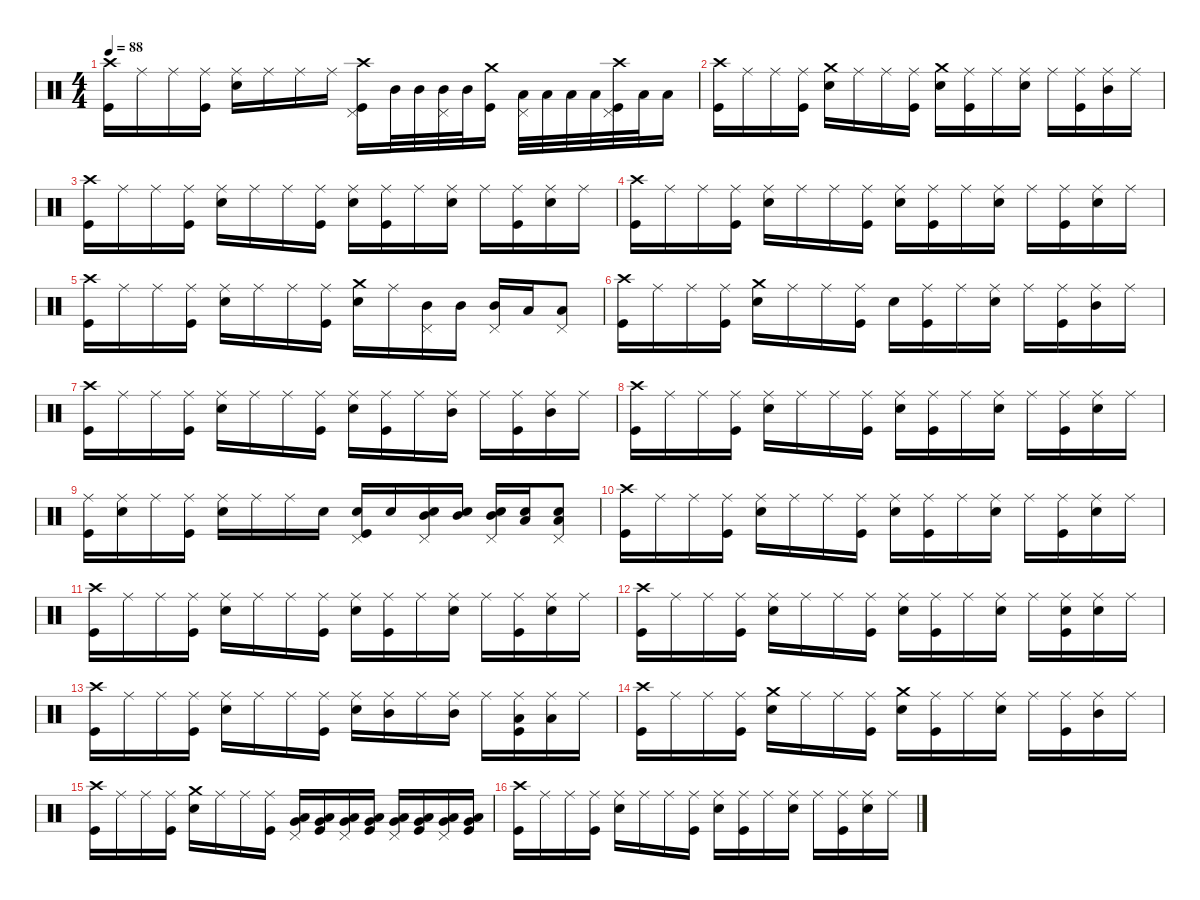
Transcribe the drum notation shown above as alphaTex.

\defaultSystemsLayout 4
\hideDynamics
\bracketExtendMode nobrackets
\singleTrackTrackNamePolicy hidden
\multiTrackTrackNamePolicy hidden
\firstSystemTrackNameMode fullname
\firstSystemTrackNameOrientation horizontal
\otherSystemsTrackNameOrientation horizontal
\track ("Drums" "drm.") {instrument percussion}
\staff {score}
\articulation defaults
\ts (4 4)
\tempo 88
\clef neutral
\ks c
("Crash high (hit)" "Kick (hit)").16{dy f beam Down} "Ride (middle)".16{dy mp beam Down} "Ride (middle)".16{dy f beam Down} ("Ride (middle)" "Kick (hit)").16{dy mp beam Down} ("Ride (middle)" "Snare (hit) 2").16{dy f beam Down} "Ride (middle)".16{dy mp beam Down} "Ride (middle)".16{dy f beam Down} "Ride (middle)".16{dy mp beam Down} ("Crash high (hit)" "Pedal Hi-Hat (hit)" "Kick (hit)").16{dy f beam Down} "Mid Tom (hit)".32{dy mf beam Down} "Mid Tom (hit)".32{dy mp beam Down} ("Pedal Hi-Hat (hit)" "Mid Tom (hit)").32{dy p beam Down} "Mid Tom (hit)".32{dy mf beam Down} ("Crash medium (hit)" "Kick (hit)").16{dy f beam Down} ("Pedal Hi-Hat (hit)" "Low Tom (hit)").32{dy p beam Down} "Low Tom (hit)".32{dy mp beam Down} "Low Tom (hit)".32{beam Down} "Low Tom (hit)".32{beam Down} ("Crash high (hit)" "Pedal Hi-Hat (hit)" "Kick (hit)").32{dy f beam Down} "Low Tom (hit)".32{dy mp beam Down} "Low Tom (hit)".16{dy p beam Down} |
("Crash high (hit)" "Kick (hit)").16{dy f beam Down} "Ride (middle)".16{dy mp beam Down} "Ride (middle)".16{dy f beam Down} ("Ride (middle)" "Kick (hit)").16{dy mp beam Down} ("Crash medium (hit)" "Snare (hit) 2").16{dy f beam Down} "Ride (middle)".16{dy mp beam Down} "Ride (middle)".16{dy f beam Down} ("Ride (middle)" "Kick (hit)").16{dy mp beam Down} ("Crash medium (hit)" "Snare (hit) 2").16{dy f beam Down} ("Ride (middle)" "Kick (hit)").16{dy mp beam Down} "Ride (middle)".16{dy f beam Down} ("Ride (middle)" "Snare (hit) 2").16{dy mp beam Down} "Ride (middle)".16{dy f beam Down} ("Ride (middle)" "Kick (hit)").16{dy mp beam Down} ("Ride (middle)" "Mid Tom (hit)").16{dy f beam Down} "Ride (middle)".16{dy mp beam Down} |
("Crash high (hit)" "Kick (hit)").16{dy f beam Down} "Ride (middle)".16{dy mp beam Down} "Ride (middle)".16{dy f beam Down} ("Ride (middle)" "Kick (hit)").16{dy mp beam Down} ("Ride (middle)" "Snare (hit) 2").16{dy f beam Down} "Ride (middle)".16{dy mp beam Down} "Ride (middle)".16{dy f beam Down} ("Ride (middle)" "Kick (hit)").16{dy mp beam Down} ("Ride (middle)" "Snare (hit) 2").16{dy f beam Down} ("Ride (middle)" "Kick (hit)").16{dy mp beam Down} "Ride (middle)".16{dy f beam Down} ("Ride (middle)" "Snare (hit) 2").16{dy mp beam Down} "Ride (middle)".16{dy f beam Down} ("Ride (middle)" "Kick (hit)").16{dy mp beam Down} ("Ride (middle)" "Snare (hit) 2").16{dy f beam Down} "Ride (middle)".16{dy mp beam Down} |
("Crash high (hit)" "Kick (hit)").16{dy f beam Down} "Ride (middle)".16{dy mp beam Down} "Ride (middle)".16{dy f beam Down} ("Ride (middle)" "Kick (hit)").16{dy mp beam Down} ("Ride (middle)" "Snare (hit) 2").16{dy f beam Down} "Ride (middle)".16{dy mp beam Down} "Ride (middle)".16{dy f beam Down} ("Ride (middle)" "Kick (hit)").16{dy mp beam Down} ("Ride (middle)" "Snare (hit) 2").16{dy f beam Down} ("Ride (middle)" "Kick (hit)").16{dy mp beam Down} "Ride (middle)".16{dy f beam Down} ("Ride (middle)" "Snare (hit) 2").16{dy mp beam Down} "Ride (middle)".16{dy f beam Down} ("Ride (middle)" "Kick (hit)").16{dy mp beam Down} ("Ride (middle)" "Snare (hit) 2").16{dy f beam Down} "Ride (middle)".16{dy mp beam Down} |
("Crash high (hit)" "Kick (hit)").16{dy f beam Down} "Ride (middle)".16{dy mp beam Down} "Ride (middle)".16{dy f beam Down} ("Ride (middle)" "Kick (hit)").16{dy mp beam Down} ("Ride (middle)" "Snare (hit) 2").16{dy f beam Down} "Ride (middle)".16{dy mp beam Down} "Ride (middle)".16{dy f beam Down} ("Ride (middle)" "Kick (hit)").16{dy mp beam Down} ("Crash medium (hit)" "Snare (hit) 2").16{dy f beam Down} "Ride (middle)".16{dy mp beam Down} ("Pedal Hi-Hat (hit)" "Mid Tom (hit)").16{dy p beam Down} "Mid Tom (hit)".16{dy mp beam Down} ("Pedal Hi-Hat (hit)" "Mid Tom (hit)").16{dy p beam Up} "Low Tom (hit)".16{dy mf beam Up} ("Pedal Hi-Hat (hit)" "Low Tom (hit)").8{dy p beam Up} |
("Crash high (hit)" "Kick (hit)").16{dy f beam Down} "Ride (middle)".16{dy mp beam Down} "Ride (middle)".16{dy f beam Down} ("Ride (middle)" "Kick (hit)").16{dy mp beam Down} ("Crash medium (hit)" "Snare (hit) 2").16{dy f beam Down} "Ride (middle)".16{dy mp beam Down} "Ride (middle)".16{dy f beam Down} ("Ride (middle)" "Kick (hit)").16{dy mp beam Down} "Snare (hit) 2".16{dy f beam Down} ("Ride (middle)" "Kick (hit)").16{dy mp beam Down} "Ride (middle)".16{dy f beam Down} ("Ride (middle)" "Snare (hit) 2").16{dy mp beam Down} "Ride (middle)".16{dy f beam Down} ("Ride (middle)" "Kick (hit)").16{dy mp beam Down} ("Ride (middle)" "Mid Tom (hit)").16{dy f beam Down} "Ride (middle)".16{dy mp beam Down} |
("Crash high (hit)" "Kick (hit)").16{dy f beam Down} "Ride (middle)".16{dy mp beam Down} "Ride (middle)".16{dy f beam Down} ("Ride (middle)" "Kick (hit)").16{dy mp beam Down} ("Ride (middle)" "Snare (hit) 2").16{dy f beam Down} "Ride (middle)".16{dy mp beam Down} "Ride (middle)".16{dy f beam Down} ("Ride (middle)" "Kick (hit)").16{dy mp beam Down} ("Ride (middle)" "Snare (hit) 2").16{dy f beam Down} ("Ride (middle)" "Kick (hit)").16{dy mp beam Down} "Ride (middle)".16{dy f beam Down} ("Ride (middle)" "Mid Tom (hit)").16{dy mp beam Down} "Ride (middle)".16{dy f beam Down} ("Ride (middle)" "Kick (hit)").16{dy mp beam Down} ("Ride (middle)" "Mid Tom (hit)").16{dy f beam Down} "Ride (middle)".16{dy mp beam Down} |
("Crash high (hit)" "Kick (hit)").16{dy f beam Down} "Ride (middle)".16{dy mp beam Down} "Ride (middle)".16{dy f beam Down} ("Ride (middle)" "Kick (hit)").16{dy mp beam Down} ("Ride (middle)" "Snare (hit) 2").16{dy f beam Down} "Ride (middle)".16{dy mp beam Down} "Ride (middle)".16{dy f beam Down} ("Ride (middle)" "Kick (hit)").16{dy mp beam Down} ("Ride (middle)" "Snare (hit) 2").16{dy f beam Down} ("Ride (middle)" "Kick (hit)").16{dy mp beam Down} "Ride (middle)".16{dy f beam Down} ("Ride (middle)" "Snare (hit) 2").16{dy mp beam Down} "Ride (middle)".16{dy f beam Down} ("Ride (middle)" "Kick (hit)").16{dy mp beam Down} ("Ride (middle)" "Snare (hit) 2").16{dy f beam Down} "Ride (middle)".16{dy mp beam Down} |
("Ride (middle)" "Kick (hit)").16{dy f beam Down} ("Ride (middle)" "Snare (hit) 2").16{dy mp beam Down} "Ride (middle)".16{dy f beam Down} ("Ride (middle)" "Kick (hit)").16{dy mp beam Down} ("Ride (middle)" "Snare (hit) 2").16{dy f beam Down} "Ride (middle)".16{dy mp beam Down} "Ride (middle)".16{dy f beam Down} "Snare (hit) 2".16{dy mp beam Down} ("Pedal Hi-Hat (hit)" "Snare (hit) 2" "Kick (hit)").16{dy p beam Up} "Snare (hit) 2".16{dy mf beam Up} ("Pedal Hi-Hat (hit)" "Mid Tom (hit)" "Snare (hit) 2").16{dy p beam Up} ("Mid Tom (hit)" "Snare (hit) 2").16{dy mp beam Up} ("Pedal Hi-Hat (hit)" "Mid Tom (hit)" "Snare (hit) 2").16{dy p beam Up} ("Low Tom (hit)" "Snare (hit) 2").16{dy mf beam Up} ("Pedal Hi-Hat (hit)" "Low Tom (hit)" "Snare (hit) 2").8{dy p beam Up} |
("Crash high (hit)" "Kick (hit)").16{dy f beam Down} "Ride (middle)".16{dy mp beam Down} "Ride (middle)".16{dy f beam Down} ("Ride (middle)" "Kick (hit)").16{dy mp beam Down} ("Ride (middle)" "Snare (hit) 2").16{dy f beam Down} "Ride (middle)".16{dy mp beam Down} "Ride (middle)".16{dy f beam Down} ("Ride (middle)" "Kick (hit)").16{dy mp beam Down} ("Ride (middle)" "Snare (hit) 2").16{dy f beam Down} ("Ride (middle)" "Kick (hit)").16{dy mp beam Down} "Ride (middle)".16{dy f beam Down} ("Ride (middle)" "Snare (hit) 2").16{dy mp beam Down} "Ride (middle)".16{dy f beam Down} ("Ride (middle)" "Kick (hit)").16{dy mp beam Down} ("Ride (middle)" "Snare (hit) 2").16{dy f beam Down} "Ride (middle)".16{dy mp beam Down} |
("Crash high (hit)" "Kick (hit)").16{dy f beam Down} "Ride (middle)".16{dy mp beam Down} "Ride (middle)".16{dy f beam Down} ("Ride (middle)" "Kick (hit)").16{dy mp beam Down} ("Ride (middle)" "Snare (hit) 2").16{dy f beam Down} "Ride (middle)".16{dy mp beam Down} "Ride (middle)".16{dy f beam Down} ("Ride (middle)" "Kick (hit)").16{dy mp beam Down} ("Ride (middle)" "Snare (hit) 2").16{dy f beam Down} ("Ride (middle)" "Kick (hit)").16{dy mp beam Down} "Ride (middle)".16{dy f beam Down} ("Ride (middle)" "Snare (hit) 2").16{dy mp beam Down} "Ride (middle)".16{dy f beam Down} ("Ride (middle)" "Kick (hit)").16{dy mp beam Down} ("Ride (middle)" "Snare (hit) 2").16{dy f beam Down} "Ride (middle)".16{dy mp beam Down} |
("Crash high (hit)" "Kick (hit)").16{dy f beam Down} "Ride (middle)".16{dy mp beam Down} "Ride (middle)".16{dy f beam Down} ("Ride (middle)" "Kick (hit)").16{dy mp beam Down} ("Ride (middle)" "Snare (hit) 2").16{dy f beam Down} "Ride (middle)".16{dy mp beam Down} "Ride (middle)".16{dy f beam Down} ("Ride (middle)" "Kick (hit)").16{dy mp beam Down} ("Ride (middle)" "Snare (hit) 2").16{dy f beam Down} ("Ride (middle)" "Kick (hit)").16{dy mp beam Down} "Ride (middle)".16{dy f beam Down} ("Ride (middle)" "Snare (hit) 2").16{dy mp beam Down} "Ride (middle)".16{dy f beam Down} ("Ride (middle)" "Snare (hit) 2" "Kick (hit)").16{dy mp beam Down} ("Ride (middle)" "Snare (hit) 2").16{dy f beam Down} "Ride (middle)".16{dy mp beam Down} |
("Crash high (hit)" "Kick (hit)").16{dy f beam Down} "Ride (middle)".16{dy mp beam Down} "Ride (middle)".16{dy f beam Down} ("Ride (middle)" "Kick (hit)").16{dy mp beam Down} ("Ride (middle)" "Snare (hit) 2").16{dy f beam Down} "Ride (middle)".16{dy mp beam Down} "Ride (middle)".16{dy f beam Down} ("Ride (middle)" "Kick (hit)").16{dy mp beam Down} ("Ride (middle)" "Snare (hit) 2").16{dy f beam Down} ("Ride (middle)" "Mid Tom (hit)").16{dy mp beam Down} "Ride (middle)".16{dy f beam Down} ("Ride (middle)" "Mid Tom (hit)").16{dy mp beam Down} "Ride (middle)".16{dy f beam Down} ("Ride (middle)" "Low Tom (hit)" "Kick (hit)").16{dy mp beam Down} ("Ride (middle)" "Low Tom (hit)").16{dy f beam Down} "Ride (middle)".16{dy mp beam Down} |
("Crash high (hit)" "Kick (hit)").16{dy f beam Down} "Ride (middle)".16{dy mp beam Down} "Ride (middle)".16{dy f beam Down} ("Ride (middle)" "Kick (hit)").16{dy mp beam Down} ("Crash medium (hit)" "Snare (hit) 2").16{dy f beam Down} "Ride (middle)".16{dy mp beam Down} "Ride (middle)".16{dy f beam Down} ("Ride (middle)" "Kick (hit)").16{dy mp beam Down} ("Crash medium (hit)" "Snare (hit) 2").16{dy f beam Down} ("Ride (middle)" "Kick (hit)").16{dy mp beam Down} "Ride (middle)".16{dy f beam Down} ("Ride (middle)" "Snare (hit) 2").16{dy mp beam Down} "Ride (middle)".16{dy f beam Down} ("Ride (middle)" "Kick (hit)").16{dy mp beam Down} ("Ride (middle)" "Mid Tom (hit)").16{dy f beam Down} "Ride (middle)".16{dy mp beam Down} |
("Crash high (hit)" "Kick (hit)").16{dy f beam Down} "Ride (middle)".16{dy mp beam Down} "Ride (middle)".16{dy f beam Down} ("Ride (middle)" "Kick (hit)").16{dy mp beam Down} ("Crash medium (hit)" "Snare (hit) 2").16{dy f beam Down} "Ride (middle)".16{dy mp beam Down} "Ride (middle)".16{dy f beam Down} ("Ride (middle)" "Kick (hit)").16{dy mp beam Down} ("Pedal Hi-Hat (hit)" "Very Low Tom (hit)" "Low Tom (hit)").16{dy p beam Up} ("Very Low Tom (hit)" "Low Tom (hit)" "Kick (hit)").16{dy mp beam Up} ("Pedal Hi-Hat (hit)" "Very Low Tom (hit)" "Low Tom (hit)").16{dy p beam Up} ("Very Low Tom (hit)" "Low Tom (hit)" "Kick (hit)").16{dy mp beam Up} ("Pedal Hi-Hat (hit)" "Very Low Tom (hit)" "Low Tom (hit)").16{dy p beam Up} ("Very Low Tom (hit)" "Low Tom (hit)" "Kick (hit)").16{beam Up} ("Pedal Hi-Hat (hit)" "Very Low Tom (hit)" "Low Tom (hit)").16{beam Up} ("Very Low Tom (hit)" "Low Tom (hit)" "Kick (hit)").16{dy mp beam Up} |
("Crash high (hit)" "Kick (hit)").16{dy f beam Down} "Ride (middle)".16{dy mp beam Down} "Ride (middle)".16{dy f beam Down} ("Ride (middle)" "Kick (hit)").16{dy mp beam Down} ("Ride (middle)" "Snare (hit) 2").16{dy f beam Down} "Ride (middle)".16{dy mp beam Down} "Ride (middle)".16{dy f beam Down} ("Ride (middle)" "Kick (hit)").16{dy mp beam Down} ("Ride (middle)" "Snare (hit) 2").16{dy f beam Down} ("Ride (middle)" "Kick (hit)").16{dy mp beam Down} "Ride (middle)".16{dy f beam Down} ("Ride (middle)" "Snare (hit) 2").16{dy mp beam Down} "Ride (middle)".16{dy f beam Down} ("Ride (middle)" "Kick (hit)").16{dy mp beam Down} ("Ride (middle)" "Snare (hit) 2").16{dy f beam Down} "Ride (middle)".16{dy mp beam Down}
